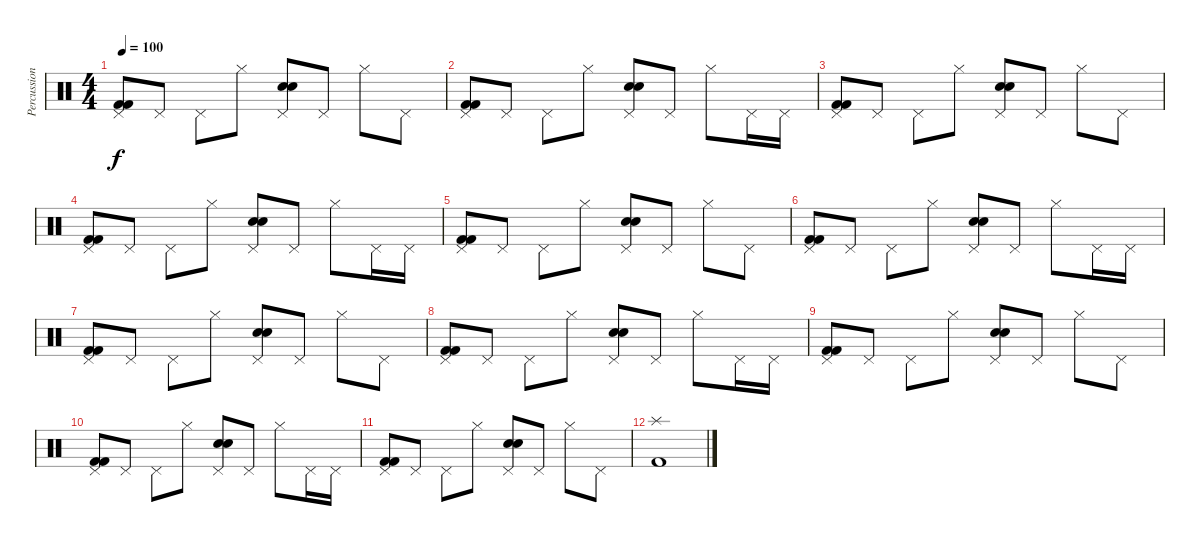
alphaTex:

\track ("Percussioni" "Percussion") {instrument percussion}
\staff {score}
\articulation defaults
\ts (4 4)
\tempo 100
\clef neutral
\ks c
("Pedal Hi-Hat (hit)" "Kick (hit) 2" "Kick (hit) 2").8{dy f} "Pedal Hi-Hat (hit)".8 "Pedal Hi-Hat (hit)".8 "Hi-Hat (closed)".8 ("Pedal Hi-Hat (hit)" "Snare (hit) 2" "Snare (hit) 2").8 "Pedal Hi-Hat (hit)".8 "Hi-Hat (closed)".8 "Pedal Hi-Hat (hit)".8 |
("Pedal Hi-Hat (hit)" "Kick (hit) 2" "Kick (hit) 2").8 "Pedal Hi-Hat (hit)".8 "Pedal Hi-Hat (hit)".8 "Hi-Hat (closed)".8 ("Pedal Hi-Hat (hit)" "Snare (hit) 2" "Snare (hit) 2").8 "Pedal Hi-Hat (hit)".8 "Hi-Hat (closed)".8 "Pedal Hi-Hat (hit)".16 "Pedal Hi-Hat (hit)".16 |
("Pedal Hi-Hat (hit)" "Kick (hit) 2" "Kick (hit) 2").8 "Pedal Hi-Hat (hit)".8 "Pedal Hi-Hat (hit)".8 "Hi-Hat (closed)".8 ("Pedal Hi-Hat (hit)" "Snare (hit) 2" "Snare (hit) 2").8 "Pedal Hi-Hat (hit)".8 "Hi-Hat (closed)".8 "Pedal Hi-Hat (hit)".8 |
("Pedal Hi-Hat (hit)" "Kick (hit) 2" "Kick (hit) 2").8 "Pedal Hi-Hat (hit)".8 "Pedal Hi-Hat (hit)".8 "Hi-Hat (closed)".8 ("Pedal Hi-Hat (hit)" "Snare (hit) 2" "Snare (hit) 2").8 "Pedal Hi-Hat (hit)".8 "Hi-Hat (closed)".8 "Pedal Hi-Hat (hit)".16 "Pedal Hi-Hat (hit)".16 |
("Pedal Hi-Hat (hit)" "Kick (hit) 2" "Kick (hit) 2").8 "Pedal Hi-Hat (hit)".8 "Pedal Hi-Hat (hit)".8 "Hi-Hat (closed)".8 ("Pedal Hi-Hat (hit)" "Snare (hit) 2" "Snare (hit) 2").8 "Pedal Hi-Hat (hit)".8 "Hi-Hat (closed)".8 "Pedal Hi-Hat (hit)".8 |
("Pedal Hi-Hat (hit)" "Kick (hit) 2" "Kick (hit) 2").8 "Pedal Hi-Hat (hit)".8 "Pedal Hi-Hat (hit)".8 "Hi-Hat (closed)".8 ("Pedal Hi-Hat (hit)" "Snare (hit) 2" "Snare (hit) 2").8 "Pedal Hi-Hat (hit)".8 "Hi-Hat (closed)".8 "Pedal Hi-Hat (hit)".16 "Pedal Hi-Hat (hit)".16 |
("Pedal Hi-Hat (hit)" "Kick (hit) 2" "Kick (hit) 2").8 "Pedal Hi-Hat (hit)".8 "Pedal Hi-Hat (hit)".8 "Hi-Hat (closed)".8 ("Pedal Hi-Hat (hit)" "Snare (hit) 2" "Snare (hit) 2").8 "Pedal Hi-Hat (hit)".8 "Hi-Hat (closed)".8 "Pedal Hi-Hat (hit)".8 |
("Pedal Hi-Hat (hit)" "Kick (hit) 2" "Kick (hit) 2").8 "Pedal Hi-Hat (hit)".8 "Pedal Hi-Hat (hit)".8 "Hi-Hat (closed)".8 ("Pedal Hi-Hat (hit)" "Snare (hit) 2" "Snare (hit) 2").8 "Pedal Hi-Hat (hit)".8 "Hi-Hat (closed)".8 "Pedal Hi-Hat (hit)".16 "Pedal Hi-Hat (hit)".16 |
("Pedal Hi-Hat (hit)" "Kick (hit) 2" "Kick (hit) 2").8 "Pedal Hi-Hat (hit)".8 "Pedal Hi-Hat (hit)".8 "Hi-Hat (closed)".8 ("Pedal Hi-Hat (hit)" "Snare (hit) 2" "Snare (hit) 2").8 "Pedal Hi-Hat (hit)".8 "Hi-Hat (closed)".8 "Pedal Hi-Hat (hit)".8 |
("Pedal Hi-Hat (hit)" "Kick (hit) 2" "Kick (hit) 2").8 "Pedal Hi-Hat (hit)".8 "Pedal Hi-Hat (hit)".8 "Hi-Hat (closed)".8 ("Pedal Hi-Hat (hit)" "Snare (hit) 2" "Snare (hit) 2").8 "Pedal Hi-Hat (hit)".8 "Hi-Hat (closed)".8 "Pedal Hi-Hat (hit)".16 "Pedal Hi-Hat (hit)".16 |
("Pedal Hi-Hat (hit)" "Kick (hit) 2" "Kick (hit) 2").8 "Pedal Hi-Hat (hit)".8 "Pedal Hi-Hat (hit)".8 "Hi-Hat (closed)".8 ("Pedal Hi-Hat (hit)" "Snare (hit) 2" "Snare (hit) 2").8 "Pedal Hi-Hat (hit)".8 "Hi-Hat (closed)".8 "Pedal Hi-Hat (hit)".8 |
("Kick (hit) 2" "Splash (hit)").1
